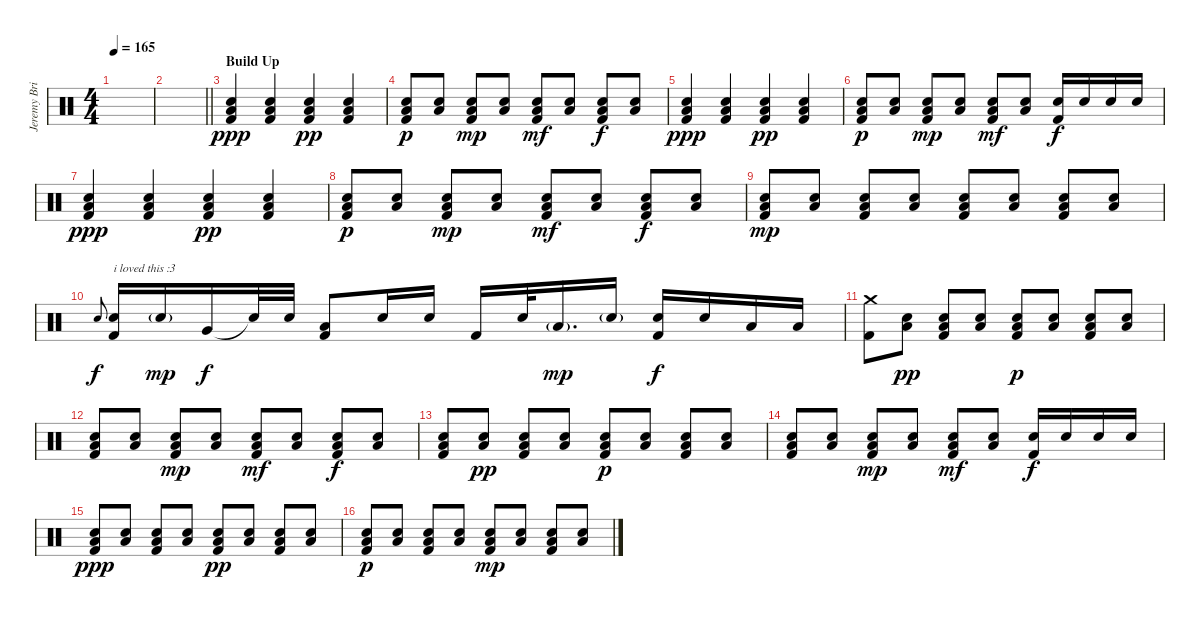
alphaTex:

\track ("Jeremy Brian [Drums]" "Jeremy Bri") {instrument percussion}
\staff {score}
\articulation defaults
\ts (4 4)
\tempo 165
\clef neutral
\ks c
|
\barLineRight lightlight
|
\section ("" "Build Up")
("Low Floor Tom (hit)" "Electric Snare (hit)" "Kick (hit) 2").4{dy ppp volume 16} ("Low Floor Tom (hit)" "Electric Snare (hit)" "Kick (hit) 2").4 ("Low Floor Tom (hit)" "Electric Snare (hit)" "Kick (hit) 2").4{dy pp} ("Low Floor Tom (hit)" "Electric Snare (hit)" "Kick (hit) 2").4 |
("Low Floor Tom (hit)" "Electric Snare (hit)" "Kick (hit) 2").8{dy p} ("Low Floor Tom (hit)" "Electric Snare (hit)").8 ("Low Floor Tom (hit)" "Electric Snare (hit)" "Kick (hit) 2").8{dy mp} ("Low Floor Tom (hit)" "Electric Snare (hit)").8 ("Low Floor Tom (hit)" "Electric Snare (hit)" "Kick (hit) 2").8{dy mf} ("Low Floor Tom (hit)" "Electric Snare (hit)").8 ("Low Floor Tom (hit)" "Electric Snare (hit)" "Kick (hit) 2").8{dy f} ("Low Floor Tom (hit)" "Electric Snare (hit)").8 |
("Low Floor Tom (hit)" "Electric Snare (hit)" "Kick (hit) 2").4{dy ppp} ("Low Floor Tom (hit)" "Electric Snare (hit)" "Kick (hit) 2").4 ("Low Floor Tom (hit)" "Electric Snare (hit)" "Kick (hit) 2").4{dy pp} ("Low Floor Tom (hit)" "Electric Snare (hit)" "Kick (hit) 2").4 |
("Low Floor Tom (hit)" "Electric Snare (hit)" "Kick (hit) 2").8{dy p} ("Low Floor Tom (hit)" "Electric Snare (hit)").8 ("Low Floor Tom (hit)" "Electric Snare (hit)" "Kick (hit) 2").8{dy mp} ("Low Floor Tom (hit)" "Electric Snare (hit)").8 ("Low Floor Tom (hit)" "Electric Snare (hit)" "Kick (hit) 2").8{dy mf} ("Low Floor Tom (hit)" "Electric Snare (hit)").8 ("Electric Snare (hit)" "Kick (hit) 2").16{dy f} "Electric Snare (hit)".16 "Electric Snare (hit)".16 "Electric Snare (hit)".16 |
("Low Floor Tom (hit)" "Electric Snare (hit)" "Kick (hit) 2").4{dy ppp} ("Low Floor Tom (hit)" "Electric Snare (hit)" "Kick (hit) 2").4 ("Low Floor Tom (hit)" "Electric Snare (hit)" "Kick (hit) 2").4{dy pp} ("Low Floor Tom (hit)" "Electric Snare (hit)" "Kick (hit) 2").4 |
("Low Floor Tom (hit)" "Electric Snare (hit)" "Kick (hit) 2").8{dy p} ("Low Floor Tom (hit)" "Electric Snare (hit)").8 ("Low Floor Tom (hit)" "Electric Snare (hit)" "Kick (hit) 2").8{dy mp} ("Low Floor Tom (hit)" "Electric Snare (hit)").8 ("Low Floor Tom (hit)" "Electric Snare (hit)" "Kick (hit) 2").8{dy mf} ("Low Floor Tom (hit)" "Electric Snare (hit)").8 ("Low Floor Tom (hit)" "Electric Snare (hit)" "Kick (hit) 2").8{dy f} ("Low Floor Tom (hit)" "Electric Snare (hit)").8 |
("Low Floor Tom (hit)" "Electric Snare (hit)" "Kick (hit) 2").8{dy mp} ("Low Floor Tom (hit)" "Electric Snare (hit)").8 ("Low Floor Tom (hit)" "Electric Snare (hit)" "Kick (hit) 2").8 ("Low Floor Tom (hit)" "Electric Snare (hit)").8 ("Low Floor Tom (hit)" "Electric Snare (hit)" "Kick (hit) 2").8 ("Low Floor Tom (hit)" "Electric Snare (hit)").8 ("Low Floor Tom (hit)" "Electric Snare (hit)" "Kick (hit) 2").8 ("Low Floor Tom (hit)" "Electric Snare (hit)").8 |
"Electric Snare (hit)".8{gr onbeat dy f} ("Electric Snare (hit)" "Kick (hit) 2").16{txt "i loved this :3"} "Electric Snare (hit)"{g}.16{dy mp} "Very Low Tom (hit)".16{dy f} "Snare (hit)"{t}.32 "Electric Snare (hit)".32 ("Low Tom (hit)" "Kick (hit) 2").8 "Electric Snare (hit)".16 "Electric Snare (hit)".16 "Kick (hit) 2".16 "Electric Snare (hit)".32 "Low Tom (hit)"{g}.16{d dy mp} "Electric Snare (hit)"{g}.16 ("Electric Snare (hit)" "Kick (hit) 2").16{dy f} "Electric Snare (hit)".16 "Low Tom (hit)".16 "Low Floor Tom (hit)".16 |
("Crash medium (hit)" "Kick (hit) 2").8 ("Low Floor Tom (hit)" "Electric Snare (hit)").8{dy pp} ("Low Floor Tom (hit)" "Electric Snare (hit)" "Kick (hit) 2").8 ("Low Floor Tom (hit)" "Electric Snare (hit)").8 ("Low Floor Tom (hit)" "Electric Snare (hit)" "Kick (hit) 2").8{dy p} ("Low Floor Tom (hit)" "Electric Snare (hit)").8 ("Low Floor Tom (hit)" "Electric Snare (hit)" "Kick (hit) 2").8 ("Low Floor Tom (hit)" "Electric Snare (hit)").8 |
("Low Floor Tom (hit)" "Electric Snare (hit)" "Kick (hit) 2").8 ("Low Floor Tom (hit)" "Electric Snare (hit)").8 ("Low Floor Tom (hit)" "Electric Snare (hit)" "Kick (hit) 2").8{dy mp} ("Low Floor Tom (hit)" "Electric Snare (hit)").8 ("Low Floor Tom (hit)" "Electric Snare (hit)" "Kick (hit) 2").8{dy mf} ("Low Floor Tom (hit)" "Electric Snare (hit)").8 ("Low Floor Tom (hit)" "Electric Snare (hit)" "Kick (hit) 2").8{dy f} ("Low Floor Tom (hit)" "Electric Snare (hit)").8 |
("Low Floor Tom (hit)" "Electric Snare (hit)" "Kick (hit) 2").8 ("Low Floor Tom (hit)" "Electric Snare (hit)").8{dy pp} ("Low Floor Tom (hit)" "Electric Snare (hit)" "Kick (hit) 2").8 ("Low Floor Tom (hit)" "Electric Snare (hit)").8 ("Low Floor Tom (hit)" "Electric Snare (hit)" "Kick (hit) 2").8{dy p} ("Low Floor Tom (hit)" "Electric Snare (hit)").8 ("Low Floor Tom (hit)" "Electric Snare (hit)" "Kick (hit) 2").8 ("Low Floor Tom (hit)" "Electric Snare (hit)").8 |
("Low Floor Tom (hit)" "Electric Snare (hit)" "Kick (hit) 2").8 ("Low Floor Tom (hit)" "Electric Snare (hit)").8 ("Low Floor Tom (hit)" "Electric Snare (hit)" "Kick (hit) 2").8{dy mp} ("Low Floor Tom (hit)" "Electric Snare (hit)").8 ("Low Floor Tom (hit)" "Electric Snare (hit)" "Kick (hit) 2").8{dy mf} ("Low Floor Tom (hit)" "Electric Snare (hit)").8 ("Electric Snare (hit)" "Kick (hit) 2").16{dy f} "Electric Snare (hit)".16 "Electric Snare (hit)".16 "Electric Snare (hit)".16 |
("Low Floor Tom (hit)" "Electric Snare (hit)" "Kick (hit) 2").8{dy ppp} ("Low Floor Tom (hit)" "Electric Snare (hit)").8 ("Low Floor Tom (hit)" "Electric Snare (hit)" "Kick (hit) 2").8 ("Low Floor Tom (hit)" "Electric Snare (hit)").8 ("Low Floor Tom (hit)" "Electric Snare (hit)" "Kick (hit) 2").8{dy pp} ("Low Floor Tom (hit)" "Electric Snare (hit)").8 ("Low Floor Tom (hit)" "Electric Snare (hit)" "Kick (hit) 2").8 ("Low Floor Tom (hit)" "Electric Snare (hit)").8 |
("Low Floor Tom (hit)" "Electric Snare (hit)" "Kick (hit) 2").8{dy p} ("Low Floor Tom (hit)" "Electric Snare (hit)").8 ("Low Floor Tom (hit)" "Electric Snare (hit)" "Kick (hit) 2").8 ("Low Floor Tom (hit)" "Electric Snare (hit)").8 ("Low Floor Tom (hit)" "Electric Snare (hit)" "Kick (hit) 2").8{dy mp} ("Low Floor Tom (hit)" "Electric Snare (hit)").8 ("Low Floor Tom (hit)" "Electric Snare (hit)" "Kick (hit) 2").8 ("Low Floor Tom (hit)" "Electric Snare (hit)").8
